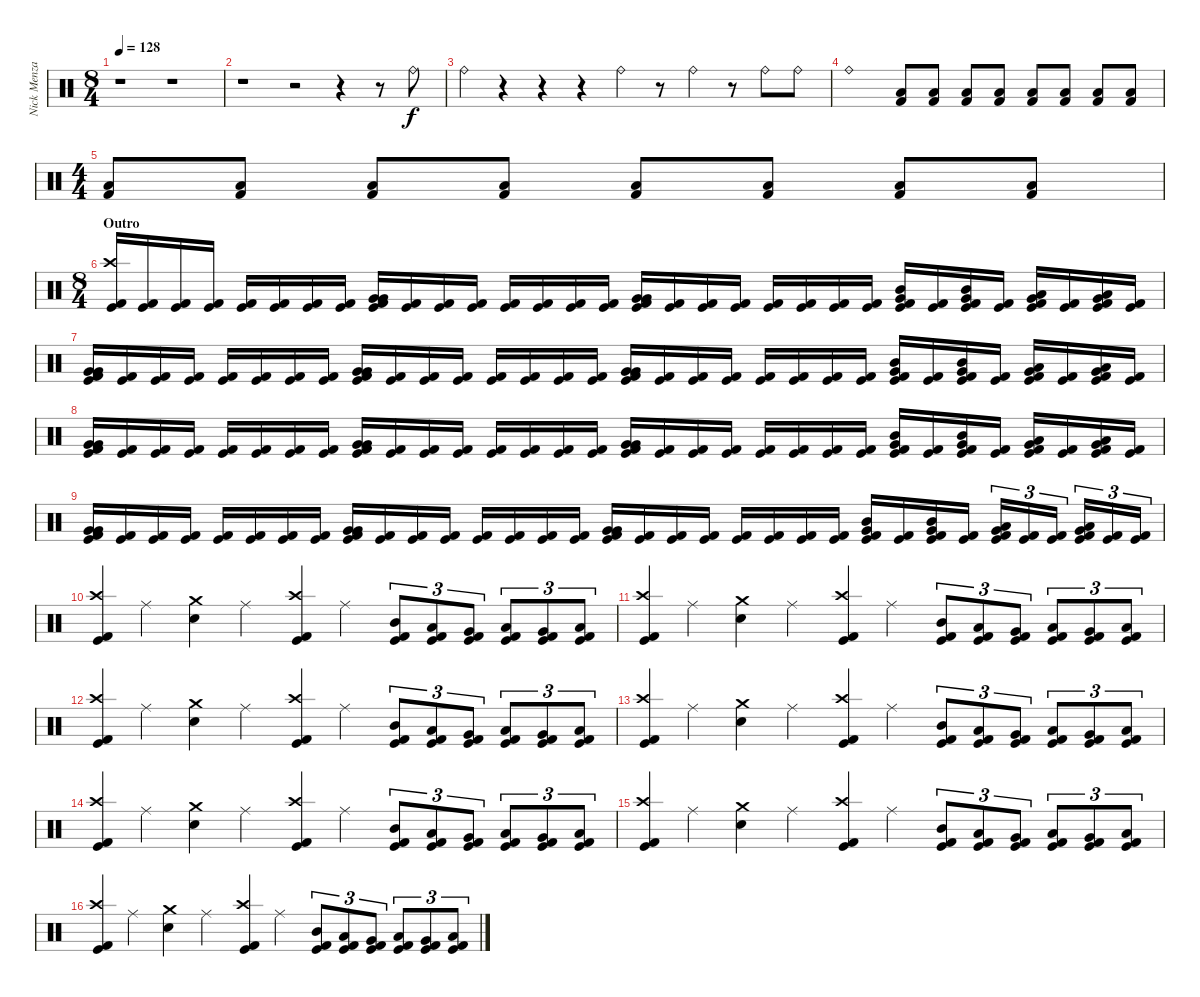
\track ("Nick Menza" "Nick Menza") {instrument percussion}
\staff {score}
\articulation defaults
\ts (8 4)
\tempo 128
\clef neutral
\ks c
r.1{dy f} r.1 |
r.1 r.2 r.4 r.8 "Ride (bell)".8 |
"Ride (bell)".4 r.4 r.4 r.4 "Ride (bell)".4 r.8 "Ride (bell)".4 r.8 "Ride (bell)".8 "Ride (bell)".8 |
"Ride (bell)".1 ("Low Tom (hit)" "Kick (hit) 2").8{volume 3} ("Low Tom (hit)" "Kick (hit) 2").8 ("Low Tom (hit)" "Kick (hit) 2").8 ("Low Tom (hit)" "Kick (hit) 2").8 ("Low Tom (hit)" "Kick (hit) 2").8{volume 7} ("Low Tom (hit)" "Kick (hit) 2").8 ("Low Tom (hit)" "Kick (hit) 2").8 ("Low Tom (hit)" "Kick (hit) 2").8 |
\ts (4 4)
("Low Tom (hit)" "Kick (hit) 2").8{volume 9} ("Low Tom (hit)" "Kick (hit) 2").8 ("Low Tom (hit)" "Kick (hit) 2").8 ("Low Tom (hit)" "Kick (hit) 2").8 ("Low Tom (hit)" "Kick (hit) 2").8{volume 13} ("Low Tom (hit)" "Kick (hit) 2").8 ("Low Tom (hit)" "Kick (hit) 2").8 ("Low Tom (hit)" "Kick (hit) 2").8 |
\ts (8 4)
\section ("" "Outro")
("Crash high (hit)" "Kick (hit)" "Kick (hit) 2").16 ("Kick (hit)" "Kick (hit) 2").16 ("Kick (hit)" "Kick (hit) 2").16 ("Kick (hit)" "Kick (hit) 2").16 ("Kick (hit)" "Kick (hit) 2").16 ("Kick (hit)" "Kick (hit) 2").16 ("Kick (hit)" "Kick (hit) 2").16 ("Kick (hit)" "Kick (hit) 2").16 ("Very Low Tom (hit)" "Very Low Tom (hit)" "Kick (hit)" "Kick (hit) 2").16 ("Kick (hit)" "Kick (hit) 2").16 ("Kick (hit)" "Kick (hit) 2").16 ("Kick (hit)" "Kick (hit) 2").16 ("Kick (hit)" "Kick (hit) 2").16 ("Kick (hit)" "Kick (hit) 2").16 ("Kick (hit)" "Kick (hit) 2").16 ("Kick (hit)" "Kick (hit) 2").16 ("Very Low Tom (hit)" "Very Low Tom (hit)" "Kick (hit)" "Kick (hit) 2").16 ("Kick (hit)" "Kick (hit) 2").16 ("Kick (hit)" "Kick (hit) 2").16 ("Kick (hit)" "Kick (hit) 2").16 ("Kick (hit)" "Kick (hit) 2").16 ("Kick (hit)" "Kick (hit) 2").16 ("Kick (hit)" "Kick (hit) 2").16 ("Kick (hit)" "Kick (hit) 2").16 ("Very Low Tom (hit)" "Mid Tom (hit)" "Kick (hit)" "Kick (hit) 2").16 ("Kick (hit)" "Kick (hit) 2").16 ("Very Low Tom (hit)" "Mid Tom (hit)" "Kick (hit)" "Kick (hit) 2").16 ("Kick (hit)" "Kick (hit) 2").16 ("Very Low Tom (hit)" "Low Tom (hit)" "Kick (hit)" "Kick (hit) 2").16 ("Kick (hit)" "Kick (hit) 2").16 ("Very Low Tom (hit)" "Low Tom (hit)" "Kick (hit)" "Kick (hit) 2").16 ("Kick (hit)" "Kick (hit) 2").16 |
("Very Low Tom (hit)" "Very Low Tom (hit)" "Kick (hit)" "Kick (hit) 2").16 ("Kick (hit)" "Kick (hit) 2").16 ("Kick (hit)" "Kick (hit) 2").16 ("Kick (hit)" "Kick (hit) 2").16 ("Kick (hit)" "Kick (hit) 2").16 ("Kick (hit)" "Kick (hit) 2").16 ("Kick (hit)" "Kick (hit) 2").16 ("Kick (hit)" "Kick (hit) 2").16 ("Very Low Tom (hit)" "Very Low Tom (hit)" "Kick (hit)" "Kick (hit) 2").16 ("Kick (hit)" "Kick (hit) 2").16 ("Kick (hit)" "Kick (hit) 2").16 ("Kick (hit)" "Kick (hit) 2").16 ("Kick (hit)" "Kick (hit) 2").16 ("Kick (hit)" "Kick (hit) 2").16 ("Kick (hit)" "Kick (hit) 2").16 ("Kick (hit)" "Kick (hit) 2").16 ("Very Low Tom (hit)" "Very Low Tom (hit)" "Kick (hit)" "Kick (hit) 2").16 ("Kick (hit)" "Kick (hit) 2").16 ("Kick (hit)" "Kick (hit) 2").16 ("Kick (hit)" "Kick (hit) 2").16 ("Kick (hit)" "Kick (hit) 2").16 ("Kick (hit)" "Kick (hit) 2").16 ("Kick (hit)" "Kick (hit) 2").16 ("Kick (hit)" "Kick (hit) 2").16 ("Very Low Tom (hit)" "Mid Tom (hit)" "Kick (hit)" "Kick (hit) 2").16 ("Kick (hit)" "Kick (hit) 2").16 ("Very Low Tom (hit)" "Mid Tom (hit)" "Kick (hit)" "Kick (hit) 2").16 ("Kick (hit)" "Kick (hit) 2").16 ("Very Low Tom (hit)" "Low Tom (hit)" "Kick (hit)" "Kick (hit) 2").16 ("Kick (hit)" "Kick (hit) 2").16 ("Very Low Tom (hit)" "Low Tom (hit)" "Kick (hit)" "Kick (hit) 2").16 ("Kick (hit)" "Kick (hit) 2").16 |
("Very Low Tom (hit)" "Very Low Tom (hit)" "Kick (hit)" "Kick (hit) 2").16 ("Kick (hit)" "Kick (hit) 2").16 ("Kick (hit)" "Kick (hit) 2").16 ("Kick (hit)" "Kick (hit) 2").16 ("Kick (hit)" "Kick (hit) 2").16 ("Kick (hit)" "Kick (hit) 2").16 ("Kick (hit)" "Kick (hit) 2").16 ("Kick (hit)" "Kick (hit) 2").16 ("Very Low Tom (hit)" "Very Low Tom (hit)" "Kick (hit)" "Kick (hit) 2").16 ("Kick (hit)" "Kick (hit) 2").16 ("Kick (hit)" "Kick (hit) 2").16 ("Kick (hit)" "Kick (hit) 2").16 ("Kick (hit)" "Kick (hit) 2").16 ("Kick (hit)" "Kick (hit) 2").16 ("Kick (hit)" "Kick (hit) 2").16 ("Kick (hit)" "Kick (hit) 2").16 ("Very Low Tom (hit)" "Very Low Tom (hit)" "Kick (hit)" "Kick (hit) 2").16 ("Kick (hit)" "Kick (hit) 2").16 ("Kick (hit)" "Kick (hit) 2").16 ("Kick (hit)" "Kick (hit) 2").16 ("Kick (hit)" "Kick (hit) 2").16 ("Kick (hit)" "Kick (hit) 2").16 ("Kick (hit)" "Kick (hit) 2").16 ("Kick (hit)" "Kick (hit) 2").16 ("Very Low Tom (hit)" "Mid Tom (hit)" "Kick (hit)" "Kick (hit) 2").16 ("Kick (hit)" "Kick (hit) 2").16 ("Very Low Tom (hit)" "Mid Tom (hit)" "Kick (hit)" "Kick (hit) 2").16 ("Kick (hit)" "Kick (hit) 2").16 ("Very Low Tom (hit)" "Low Tom (hit)" "Kick (hit)" "Kick (hit) 2").16 ("Kick (hit)" "Kick (hit) 2").16 ("Very Low Tom (hit)" "Low Tom (hit)" "Kick (hit)" "Kick (hit) 2").16 ("Kick (hit)" "Kick (hit) 2").16 |
("Very Low Tom (hit)" "Very Low Tom (hit)" "Kick (hit)" "Kick (hit) 2").16 ("Kick (hit)" "Kick (hit) 2").16 ("Kick (hit)" "Kick (hit) 2").16 ("Kick (hit)" "Kick (hit) 2").16 ("Kick (hit)" "Kick (hit) 2").16 ("Kick (hit)" "Kick (hit) 2").16 ("Kick (hit)" "Kick (hit) 2").16 ("Kick (hit)" "Kick (hit) 2").16 ("Very Low Tom (hit)" "Very Low Tom (hit)" "Kick (hit)" "Kick (hit) 2").16 ("Kick (hit)" "Kick (hit) 2").16 ("Kick (hit)" "Kick (hit) 2").16 ("Kick (hit)" "Kick (hit) 2").16 ("Kick (hit)" "Kick (hit) 2").16 ("Kick (hit)" "Kick (hit) 2").16 ("Kick (hit)" "Kick (hit) 2").16 ("Kick (hit)" "Kick (hit) 2").16 ("Very Low Tom (hit)" "Very Low Tom (hit)" "Kick (hit)" "Kick (hit) 2").16 ("Kick (hit)" "Kick (hit) 2").16 ("Kick (hit)" "Kick (hit) 2").16 ("Kick (hit)" "Kick (hit) 2").16 ("Kick (hit)" "Kick (hit) 2").16 ("Kick (hit)" "Kick (hit) 2").16 ("Kick (hit)" "Kick (hit) 2").16 ("Kick (hit)" "Kick (hit) 2").16 ("Very Low Tom (hit)" "Mid Tom (hit)" "Kick (hit)" "Kick (hit) 2").16 ("Kick (hit)" "Kick (hit) 2").16 ("Very Low Tom (hit)" "Mid Tom (hit)" "Kick (hit)" "Kick (hit) 2").16 ("Kick (hit)" "Kick (hit) 2").16 ("Very Low Tom (hit)" "Low Tom (hit)" "Kick (hit)" "Kick (hit) 2").16{tu (3 2)} ("Kick (hit)" "Kick (hit) 2").16{tu (3 2)} ("Kick (hit)" "Kick (hit) 2").16{tu (3 2)} ("Very Low Tom (hit)" "Low Tom (hit)" "Kick (hit)" "Kick (hit) 2").16{tu (3 2)} ("Kick (hit)" "Kick (hit) 2").16{tu (3 2)} ("Kick (hit)" "Kick (hit) 2").16{tu (3 2)} |
("Crash high (hit)" "Kick (hit)" "Kick (hit) 2").4 "Ride (middle)".4 ("Crash medium (hit)" "Electric Snare (hit)").4 "Ride (middle)".4 ("Crash high (hit)" "Kick (hit)" "Kick (hit) 2").4 "Ride (middle)".4 ("Mid Tom (hit)" "Kick (hit)" "Kick (hit) 2").8{tu (3 2)} ("Low Tom (hit)" "Kick (hit)" "Kick (hit) 2").8{tu (3 2)} ("Very Low Tom (hit)" "Kick (hit)" "Kick (hit) 2").8{tu (3 2)} ("Low Tom (hit)" "Kick (hit)" "Kick (hit) 2").8{tu (3 2)} ("Very Low Tom (hit)" "Kick (hit)" "Kick (hit) 2").8{tu (3 2)} ("Low Floor Tom (hit)" "Kick (hit)" "Kick (hit) 2").8{tu (3 2)} |
("Crash high (hit)" "Kick (hit)" "Kick (hit) 2").4 "Ride (middle)".4 ("Crash medium (hit)" "Electric Snare (hit)").4 "Ride (middle)".4 ("Crash high (hit)" "Kick (hit)" "Kick (hit) 2").4 "Ride (middle)".4 ("Mid Tom (hit)" "Kick (hit)" "Kick (hit) 2").8{tu (3 2)} ("Low Tom (hit)" "Kick (hit)" "Kick (hit) 2").8{tu (3 2)} ("Very Low Tom (hit)" "Kick (hit)" "Kick (hit) 2").8{tu (3 2)} ("Low Tom (hit)" "Kick (hit)" "Kick (hit) 2").8{tu (3 2)} ("Very Low Tom (hit)" "Kick (hit)" "Kick (hit) 2").8{tu (3 2)} ("Low Floor Tom (hit)" "Kick (hit)" "Kick (hit) 2").8{tu (3 2)} |
("Crash high (hit)" "Kick (hit)" "Kick (hit) 2").4 "Ride (middle)".4 ("Crash medium (hit)" "Electric Snare (hit)").4 "Ride (middle)".4 ("Crash high (hit)" "Kick (hit)" "Kick (hit) 2").4 "Ride (middle)".4 ("Mid Tom (hit)" "Kick (hit)" "Kick (hit) 2").8{tu (3 2)} ("Low Tom (hit)" "Kick (hit)" "Kick (hit) 2").8{tu (3 2)} ("Very Low Tom (hit)" "Kick (hit)" "Kick (hit) 2").8{tu (3 2)} ("Low Tom (hit)" "Kick (hit)" "Kick (hit) 2").8{tu (3 2)} ("Very Low Tom (hit)" "Kick (hit)" "Kick (hit) 2").8{tu (3 2)} ("Low Floor Tom (hit)" "Kick (hit)" "Kick (hit) 2").8{tu (3 2)} |
("Crash high (hit)" "Kick (hit)" "Kick (hit) 2").4 "Ride (middle)".4 ("Crash medium (hit)" "Electric Snare (hit)").4 "Ride (middle)".4 ("Crash high (hit)" "Kick (hit)" "Kick (hit) 2").4 "Ride (middle)".4 ("Mid Tom (hit)" "Kick (hit)" "Kick (hit) 2").8{tu (3 2)} ("Low Tom (hit)" "Kick (hit)" "Kick (hit) 2").8{tu (3 2)} ("Very Low Tom (hit)" "Kick (hit)" "Kick (hit) 2").8{tu (3 2)} ("Low Tom (hit)" "Kick (hit)" "Kick (hit) 2").8{tu (3 2)} ("Very Low Tom (hit)" "Kick (hit)" "Kick (hit) 2").8{tu (3 2)} ("Low Floor Tom (hit)" "Kick (hit)" "Kick (hit) 2").8{tu (3 2)} |
("Crash high (hit)" "Kick (hit)" "Kick (hit) 2").4 "Ride (middle)".4 ("Crash medium (hit)" "Electric Snare (hit)").4 "Ride (middle)".4 ("Crash high (hit)" "Kick (hit)" "Kick (hit) 2").4 "Ride (middle)".4 ("Mid Tom (hit)" "Kick (hit)" "Kick (hit) 2").8{tu (3 2)} ("Low Tom (hit)" "Kick (hit)" "Kick (hit) 2").8{tu (3 2)} ("Very Low Tom (hit)" "Kick (hit)" "Kick (hit) 2").8{tu (3 2)} ("Low Tom (hit)" "Kick (hit)" "Kick (hit) 2").8{tu (3 2)} ("Very Low Tom (hit)" "Kick (hit)" "Kick (hit) 2").8{tu (3 2)} ("Low Floor Tom (hit)" "Kick (hit)" "Kick (hit) 2").8{tu (3 2)} |
("Crash high (hit)" "Kick (hit)" "Kick (hit) 2").4 "Ride (middle)".4 ("Crash medium (hit)" "Electric Snare (hit)").4 "Ride (middle)".4 ("Crash high (hit)" "Kick (hit)" "Kick (hit) 2").4 "Ride (middle)".4 ("Mid Tom (hit)" "Kick (hit)" "Kick (hit) 2").8{tu (3 2)} ("Low Tom (hit)" "Kick (hit)" "Kick (hit) 2").8{tu (3 2)} ("Very Low Tom (hit)" "Kick (hit)" "Kick (hit) 2").8{tu (3 2)} ("Low Tom (hit)" "Kick (hit)" "Kick (hit) 2").8{tu (3 2)} ("Very Low Tom (hit)" "Kick (hit)" "Kick (hit) 2").8{tu (3 2)} ("Low Floor Tom (hit)" "Kick (hit)" "Kick (hit) 2").8{tu (3 2)} |
("Crash high (hit)" "Kick (hit)" "Kick (hit) 2").4 "Ride (middle)".4 ("Crash medium (hit)" "Electric Snare (hit)").4 "Ride (middle)".4 ("Crash high (hit)" "Kick (hit)" "Kick (hit) 2").4 "Ride (middle)".4 ("Mid Tom (hit)" "Kick (hit)" "Kick (hit) 2").8{tu (3 2)} ("Low Tom (hit)" "Kick (hit)" "Kick (hit) 2").8{tu (3 2)} ("Very Low Tom (hit)" "Kick (hit)" "Kick (hit) 2").8{tu (3 2)} ("Low Tom (hit)" "Kick (hit)" "Kick (hit) 2").8{tu (3 2)} ("Very Low Tom (hit)" "Kick (hit)" "Kick (hit) 2").8{tu (3 2)} ("Low Floor Tom (hit)" "Kick (hit)" "Kick (hit) 2").8{tu (3 2)}
